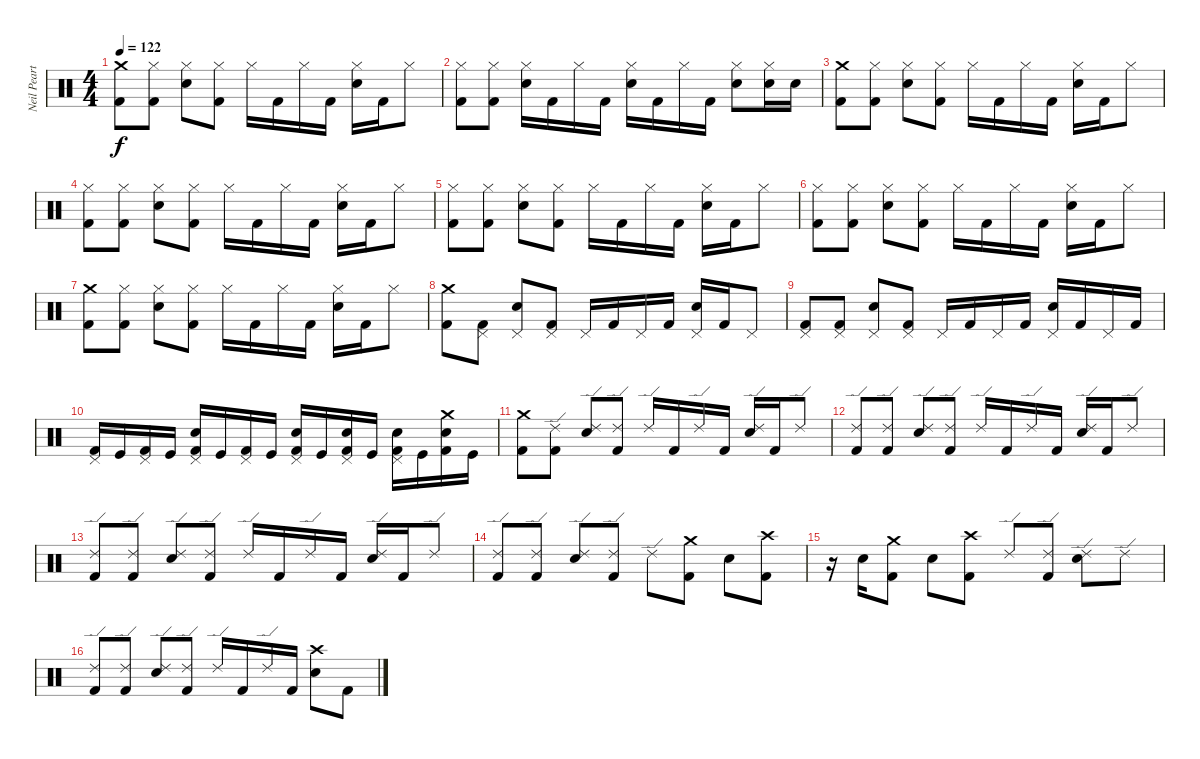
\track ("Neil Peart" "Neil Peart") {instrument percussion}
\staff {score}
\articulation defaults
\ts (4 4)
\tempo 122
\clef neutral
\ks c
("Crash medium (hit)" "Kick (hit) 2").8{dy f} ("Hi-Hat (closed)" "Kick (hit) 2").8 ("Hi-Hat (closed)" "Snare (hit) 2").8 ("Kick (hit) 2" "Hi-Hat (closed)").8 "Hi-Hat (closed)".16 "Kick (hit) 2".16 "Hi-Hat (closed)".16 "Kick (hit) 2".16 ("Hi-Hat (closed)" "Snare (hit) 2").16 "Kick (hit) 2".16 "Hi-Hat (closed)".8 |
("Kick (hit) 2" "Hi-Hat (closed)").8 ("Kick (hit) 2" "Hi-Hat (closed)").8 ("Hi-Hat (closed)" "Snare (hit) 2").16 "Kick (hit) 2".16 "Hi-Hat (closed)".16 "Kick (hit) 2".16 ("Hi-Hat (closed)" "Snare (hit) 2").16 "Kick (hit) 2".16 "Hi-Hat (closed)".16 "Kick (hit) 2".16 ("Hi-Hat (closed)" "Snare (hit) 2").8 ("Hi-Hat (closed)" "Snare (hit) 2").16 "Snare (hit) 2".16 |
("Kick (hit) 2" "Crash medium (hit)").8 ("Kick (hit) 2" "Hi-Hat (closed)").8 ("Hi-Hat (closed)" "Snare (hit) 2").8 ("Hi-Hat (closed)" "Kick (hit) 2").8 "Hi-Hat (closed)".16 "Kick (hit) 2".16 "Hi-Hat (closed)".16 "Kick (hit) 2".16 ("Hi-Hat (closed)" "Snare (hit) 2").16 "Kick (hit) 2".16 "Hi-Hat (closed)".8 |
("Kick (hit) 2" "Hi-Hat (closed)").8 ("Kick (hit) 2" "Hi-Hat (closed)").8 ("Hi-Hat (closed)" "Snare (hit) 2").8 ("Hi-Hat (closed)" "Kick (hit) 2").8 "Hi-Hat (closed)".16 "Kick (hit) 2".16 "Hi-Hat (closed)".16 "Kick (hit) 2".16 ("Hi-Hat (closed)" "Snare (hit) 2").16 "Kick (hit) 2".16 "Hi-Hat (closed)".8 |
("Kick (hit) 2" "Hi-Hat (closed)").8 ("Hi-Hat (closed)" "Kick (hit) 2").8 ("Snare (hit) 2" "Hi-Hat (closed)").8 ("Hi-Hat (closed)" "Kick (hit) 2").8 "Hi-Hat (closed)".16 "Kick (hit) 2".16 "Hi-Hat (closed)".16 "Kick (hit) 2".16 ("Hi-Hat (closed)" "Snare (hit) 2").16 "Kick (hit) 2".16 "Hi-Hat (closed)".8 |
("Kick (hit) 2" "Hi-Hat (closed)").8 ("Hi-Hat (closed)" "Kick (hit) 2").8 ("Snare (hit) 2" "Hi-Hat (closed)").8 ("Hi-Hat (closed)" "Kick (hit) 2").8 "Hi-Hat (closed)".16 "Kick (hit) 2".16 "Hi-Hat (closed)".16 "Kick (hit) 2".16 ("Hi-Hat (closed)" "Snare (hit) 2").16 "Kick (hit) 2".16 "Hi-Hat (closed)".8 |
("Kick (hit) 2" "Crash medium (hit)").8 ("Hi-Hat (closed)" "Kick (hit) 2").8 ("Snare (hit) 2" "Hi-Hat (closed)").8 ("Hi-Hat (closed)" "Kick (hit) 2").8 "Hi-Hat (closed)".16 "Kick (hit) 2".16 "Hi-Hat (closed)".16 "Kick (hit) 2".16 ("Hi-Hat (closed)" "Snare (hit) 2").16 "Kick (hit) 2".16 "Hi-Hat (closed)".8 |
("Kick (hit) 2" "Crash medium (hit)").8 ("Kick (hit) 2" "Pedal Hi-Hat (hit)").8 ("Snare (hit) 2" "Pedal Hi-Hat (hit)").8 ("Pedal Hi-Hat (hit)" "Kick (hit) 2").8 "Pedal Hi-Hat (hit)".16 "Kick (hit) 2".16 "Pedal Hi-Hat (hit)".16 "Kick (hit) 2".16 ("Pedal Hi-Hat (hit)" "Snare (hit) 2").16 "Kick (hit) 2".16 "Pedal Hi-Hat (hit)".8 |
("Pedal Hi-Hat (hit)" "Kick (hit) 2").8 ("Pedal Hi-Hat (hit)" "Kick (hit) 2").8 ("Pedal Hi-Hat (hit)" "Snare (hit) 2").8 ("Pedal Hi-Hat (hit)" "Kick (hit) 2").8 "Pedal Hi-Hat (hit)".16 "Kick (hit) 2".16 "Pedal Hi-Hat (hit)".16 "Kick (hit) 2".16 ("Snare (hit) 2" "Pedal Hi-Hat (hit)").16 "Kick (hit) 2".16 "Pedal Hi-Hat (hit)".16 "Kick (hit) 2".16 |
("Kick (hit) 2" "Pedal Hi-Hat (hit)").16 "Kick (hit)".16 ("Kick (hit) 2" "Pedal Hi-Hat (hit)").16 "Kick (hit)".16 ("Pedal Hi-Hat (hit)" "Snare (hit) 2" "Kick (hit) 2").16 "Kick (hit)".16 ("Kick (hit) 2" "Pedal Hi-Hat (hit)").16 "Kick (hit)".16 ("Pedal Hi-Hat (hit)" "Kick (hit) 2" "Snare (hit) 2").16 "Kick (hit)".16 ("Snare (hit) 2" "Pedal Hi-Hat (hit)" "Kick (hit) 2").16 "Kick (hit)".16 ("Snare (hit) 2" "Pedal Hi-Hat (hit)" "Kick (hit) 2").16 "Kick (hit)".16 ("Kick (hit) 2" "Crash medium (hit)" "Snare (hit) 2").16 "Kick (hit)".16 |
("Kick (hit) 2" "Crash medium (hit)").8 ("Ride (edge) 2" "Kick (hit) 2").8 ("Ride (edge) 2" "Snare (hit) 2").8 ("Ride (edge) 2" "Kick (hit) 2").8 "Ride (edge) 2".16 "Kick (hit) 2".16 "Ride (edge) 2".16 "Kick (hit) 2".16 ("Ride (edge) 2" "Snare (hit) 2").16 "Kick (hit) 2".16 "Ride (edge) 2".8 |
("Kick (hit) 2" "Ride (edge) 2").8 ("Ride (edge) 2" "Kick (hit) 2").8 ("Snare (hit) 2" "Ride (edge) 2").8 ("Ride (edge) 2" "Kick (hit) 2").8 "Ride (edge) 2".16 "Kick (hit) 2".16 "Ride (edge) 2".16 "Kick (hit) 2".16 ("Snare (hit) 2" "Ride (edge) 2").16 "Kick (hit) 2".16 "Ride (edge) 2".8 |
("Kick (hit) 2" "Ride (edge) 2").8 ("Ride (edge) 2" "Kick (hit) 2").8 ("Snare (hit) 2" "Ride (edge) 2").8 ("Kick (hit) 2" "Ride (edge) 2").8 "Ride (edge) 2".16 "Kick (hit) 2".16 "Ride (edge) 2".16 "Kick (hit) 2".16 ("Snare (hit) 2" "Ride (edge) 2").16 "Kick (hit) 2".16 "Ride (edge) 2".8 |
("Ride (edge) 2" "Kick (hit) 2").8 ("Ride (edge) 2" "Kick (hit) 2").8 ("Ride (edge) 2" "Snare (hit) 2").8 ("Kick (hit) 2" "Ride (edge) 2").8 "Ride (edge) 2".8 ("Crash medium (hit)" "Kick (hit) 2").8 "Snare (hit) 2".8 ("Kick (hit) 2" "Crash high (hit)").8 |
r.16 "Snare (hit) 2".16 ("Kick (hit) 2" "Crash medium (hit)").8 "Snare (hit) 2".8 ("Crash high (hit)" "Kick (hit) 2").8 "Ride (edge) 2".8 ("Kick (hit) 2" "Ride (edge) 2").8 ("Snare (hit) 2" "Ride (edge) 2").8 "Ride (edge) 2".8 |
("Kick (hit) 2" "Ride (edge) 2").8 ("Ride (edge) 2" "Kick (hit) 2").8 ("Snare (hit) 2" "Ride (edge) 2").8 ("Ride (edge) 2" "Kick (hit) 2").8 "Ride (edge) 2".16 "Kick (hit) 2".16 "Ride (edge) 2".16 "Kick (hit) 2".16 ("Snare (hit) 2" "Crash high (hit)").8 "Kick (hit) 2".8
